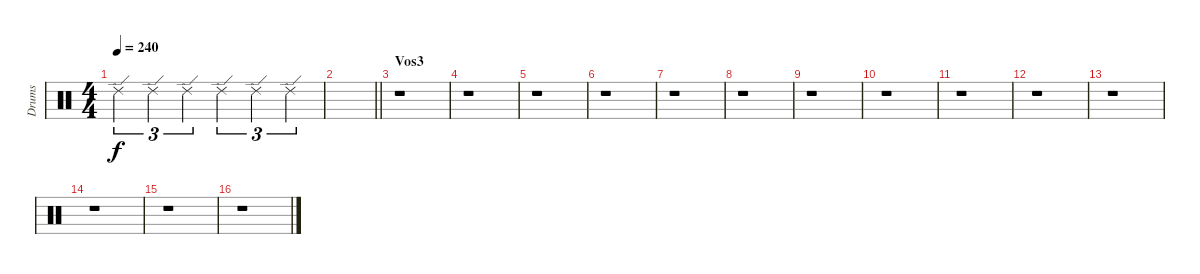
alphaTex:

\track ("Drums" "Drums") {instrument percussion}
\staff {score}
\articulation defaults
\ts (4 4)
\tempo 240
\clef neutral
\ks c "Ride (edge) 2".4{tu (3 2) dy f} "Ride (edge) 2".4{tu (3 2)} "Ride (edge) 2".4{tu (3 2)} "Ride (edge) 2".4{tu (3 2)} "Ride (edge) 2".4{tu (3 2)} "Ride (edge) 2".4{tu (3 2)}
|
\barLineRight lightlight
|
\section ("" "Vos3")
r.1 |
r.1 |
r.1 |
r.1 |
r.1 |
r.1 |
r.1 |
r.1 |
r.1 |
r.1 |
r.1 |
r.1 |
r.1 |
r.1
